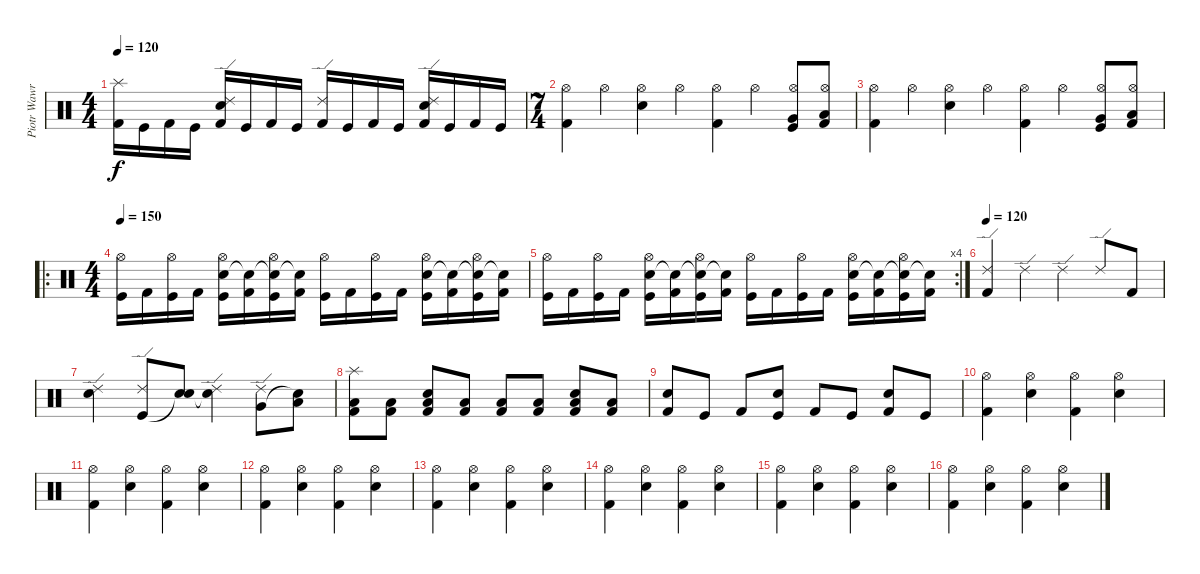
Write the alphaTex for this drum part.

\track ("Piotr Wawrzeniuk" "Piotr Wawr") {instrument percussion}
\staff {score}
\articulation defaults
\ts (4 4)
\tempo 120
\clef neutral
\ks c
("Splash (hit)" "Kick (hit) 2").16{dy f} "Kick (hit)".16 "Kick (hit) 2".16 "Kick (hit)".16 ("Ride (edge) 2" "Electric Snare (hit)" "Kick (hit) 2").16 "Kick (hit)".16 "Kick (hit) 2".16 "Kick (hit)".16 ("Ride (edge) 2" "Kick (hit) 2").16 "Kick (hit)".16 "Kick (hit) 2".16 "Kick (hit)".16 ("Ride (edge) 2" "Electric Snare (hit)" "Kick (hit) 2").16 "Kick (hit)".16 "Kick (hit) 2".16 "Kick (hit)".16 |
\ts (7 4)
("Hi-Hat (open)" "Kick (hit) 2").4 "Hi-Hat (open)".4 ("Hi-Hat (open)" "Electric Snare (hit)").4 "Hi-Hat (open)".4 ("Hi-Hat (open)" "Kick (hit) 2").4 "Hi-Hat (open)".4 ("Hi-Hat (open)" "Very Low Tom (hit)" "Kick (hit)").8 ("Hi-Hat (open)" "Low Floor Tom (hit)" "Kick (hit) 2").8 |
("Hi-Hat (open)" "Kick (hit) 2").4 "Hi-Hat (open)".4 ("Hi-Hat (open)" "Electric Snare (hit)").4 "Hi-Hat (open)".4 ("Hi-Hat (open)" "Kick (hit) 2").4 "Hi-Hat (open)".4 ("Hi-Hat (open)" "Very Low Tom (hit)" "Kick (hit)").8 ("Hi-Hat (open)" "Low Floor Tom (hit)" "Kick (hit) 2").8 |
\ro
\ts (4 4)
\tempo 150
("Hi-Hat (open)" "Kick (hit)").16 "Kick (hit) 2".16 ("Hi-Hat (open)" "Kick (hit)").16 "Kick (hit) 2".16 ("Electric Snare (hit)" "Hi-Hat (open)" "Kick (hit)").16 ("Snare (hit)"{t} "Kick (hit) 2").16 ("Electric Snare (hit)"{t} "Hi-Hat (open)" "Kick (hit)").16 ("Snare (hit)"{t} "Kick (hit) 2").16 ("Hi-Hat (open)" "Kick (hit)").16 "Kick (hit) 2".16 ("Hi-Hat (open)" "Kick (hit)").16 "Kick (hit) 2".16 ("Electric Snare (hit)" "Hi-Hat (open)" "Kick (hit)").16 ("Snare (hit)"{t} "Kick (hit) 2").16 ("Electric Snare (hit)"{t} "Hi-Hat (open)" "Kick (hit)").16 ("Snare (hit)"{t} "Kick (hit) 2").16 |
\rc 4
("Hi-Hat (open)" "Kick (hit)").16 "Kick (hit) 2".16 ("Hi-Hat (open)" "Kick (hit)").16 "Kick (hit) 2".16 ("Electric Snare (hit)" "Hi-Hat (open)" "Kick (hit)").16 ("Snare (hit)"{t} "Kick (hit) 2").16 ("Electric Snare (hit)"{t} "Hi-Hat (open)" "Kick (hit)").16 ("Snare (hit)"{t} "Kick (hit) 2").16 ("Hi-Hat (open)" "Kick (hit)").16 "Kick (hit) 2".16 ("Hi-Hat (open)" "Kick (hit)").16 "Kick (hit) 2".16 ("Electric Snare (hit)" "Hi-Hat (open)" "Kick (hit)").16 ("Snare (hit)"{t} "Kick (hit) 2").16 ("Electric Snare (hit)"{t} "Hi-Hat (open)" "Kick (hit)").16 ("Snare (hit)"{t} "Kick (hit) 2").16 |
\tempo 120
("Ride (edge) 2" "Kick (hit) 2").4 "Ride (edge) 2".4 "Ride (edge) 2".4 "Ride (edge) 2".8 "Kick (hit) 2".8 |
("Electric Snare (hit)" "Ride (edge) 2").4 ("Ride (edge) 2" "Kick (hit)").8 ("Electric Snare (hit)" "Snare (hit)"{t}).8 ("Electric Snare (hit)"{t} "Ride (edge) 2").4 ("Very Low Tom (hit)" "Ride (edge) 2").8 ("Snare (hit)"{t} "Low Floor Tom (hit)").8 |
("Splash (hit)" "Low Floor Tom (hit)" "Kick (hit) 2").8 ("Low Floor Tom (hit)" "Kick (hit) 2").8 ("Electric Snare (hit)" "Low Floor Tom (hit)" "Kick (hit) 2").8 ("Low Floor Tom (hit)" "Kick (hit) 2").8 ("Low Floor Tom (hit)" "Kick (hit) 2").8 ("Low Floor Tom (hit)" "Kick (hit) 2").8 ("Electric Snare (hit)" "Low Floor Tom (hit)" "Kick (hit) 2").8 ("Low Floor Tom (hit)" "Kick (hit) 2").8 |
("Electric Snare (hit)" "Kick (hit) 2").8 "Kick (hit)".8 "Kick (hit) 2".8 ("Electric Snare (hit)" "Kick (hit)").8 "Kick (hit) 2".8 "Kick (hit)".8 ("Electric Snare (hit)" "Kick (hit) 2").8 "Kick (hit)".8 |
("Hi-Hat (open)" "Kick (hit) 2").4 ("Electric Snare (hit)" "Hi-Hat (open)").4 ("Hi-Hat (open)" "Kick (hit) 2").4 ("Electric Snare (hit)" "Hi-Hat (open)").4 |
("Hi-Hat (open)" "Kick (hit) 2").4 ("Electric Snare (hit)" "Hi-Hat (open)").4 ("Hi-Hat (open)" "Kick (hit) 2").4 ("Electric Snare (hit)" "Hi-Hat (open)").4 |
("Hi-Hat (open)" "Kick (hit) 2").4 ("Electric Snare (hit)" "Hi-Hat (open)").4 ("Hi-Hat (open)" "Kick (hit) 2").4 ("Electric Snare (hit)" "Hi-Hat (open)").4 |
("Hi-Hat (open)" "Kick (hit) 2").4 ("Electric Snare (hit)" "Hi-Hat (open)").4 ("Hi-Hat (open)" "Kick (hit) 2").4 ("Electric Snare (hit)" "Hi-Hat (open)").4 |
("Hi-Hat (open)" "Kick (hit) 2").4 ("Electric Snare (hit)" "Hi-Hat (open)").4 ("Hi-Hat (open)" "Kick (hit) 2").4 ("Electric Snare (hit)" "Hi-Hat (open)").4 |
("Hi-Hat (open)" "Kick (hit) 2").4 ("Electric Snare (hit)" "Hi-Hat (open)").4 ("Hi-Hat (open)" "Kick (hit) 2").4 ("Electric Snare (hit)" "Hi-Hat (open)").4 |
("Hi-Hat (open)" "Kick (hit) 2").4 ("Electric Snare (hit)" "Hi-Hat (open)").4 ("Hi-Hat (open)" "Kick (hit) 2").4 ("Electric Snare (hit)" "Hi-Hat (open)").4
